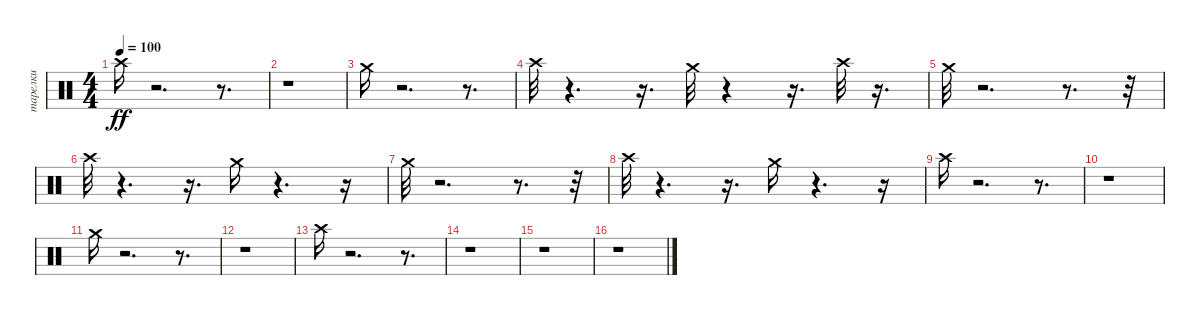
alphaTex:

\track ("тарелки" "тарелки") {instrument percussion}
\staff {score}
\articulation defaults
\ts (4 4)
\tempo 100
\clef neutral
\ks c "Crash high (hit)".16{dy ff}
r.2{d} r.8{d} |
r.1 |
"Crash medium (hit)".16 r.2{d} r.8{d} |
"Crash high (hit)".32 r.4{d} r.16{d} "Crash medium (hit)".32 r.4 r.16{d} "Crash high (hit)".32 r.16{d} |
"Crash medium (hit)".32 r.2{d} r.8{d} r.32 |
"Crash high (hit)".32 r.4{d} r.16{d} "Crash medium (hit)".16 r.4{d} r.16 |
"Crash medium (hit)".32 r.2{d} r.8{d} r.32 |
"Crash high (hit)".32 r.4{d} r.16{d} "Crash medium (hit)".16 r.4{d} r.16 |
"Crash high (hit)".16 r.2{d} r.8{d} |
r.1 |
"Crash medium (hit)".16 r.2{d} r.8{d} |
r.1 |
"Crash high (hit)".16 r.2{d} r.8{d} |
r.1 |
r.1 |
r.1
